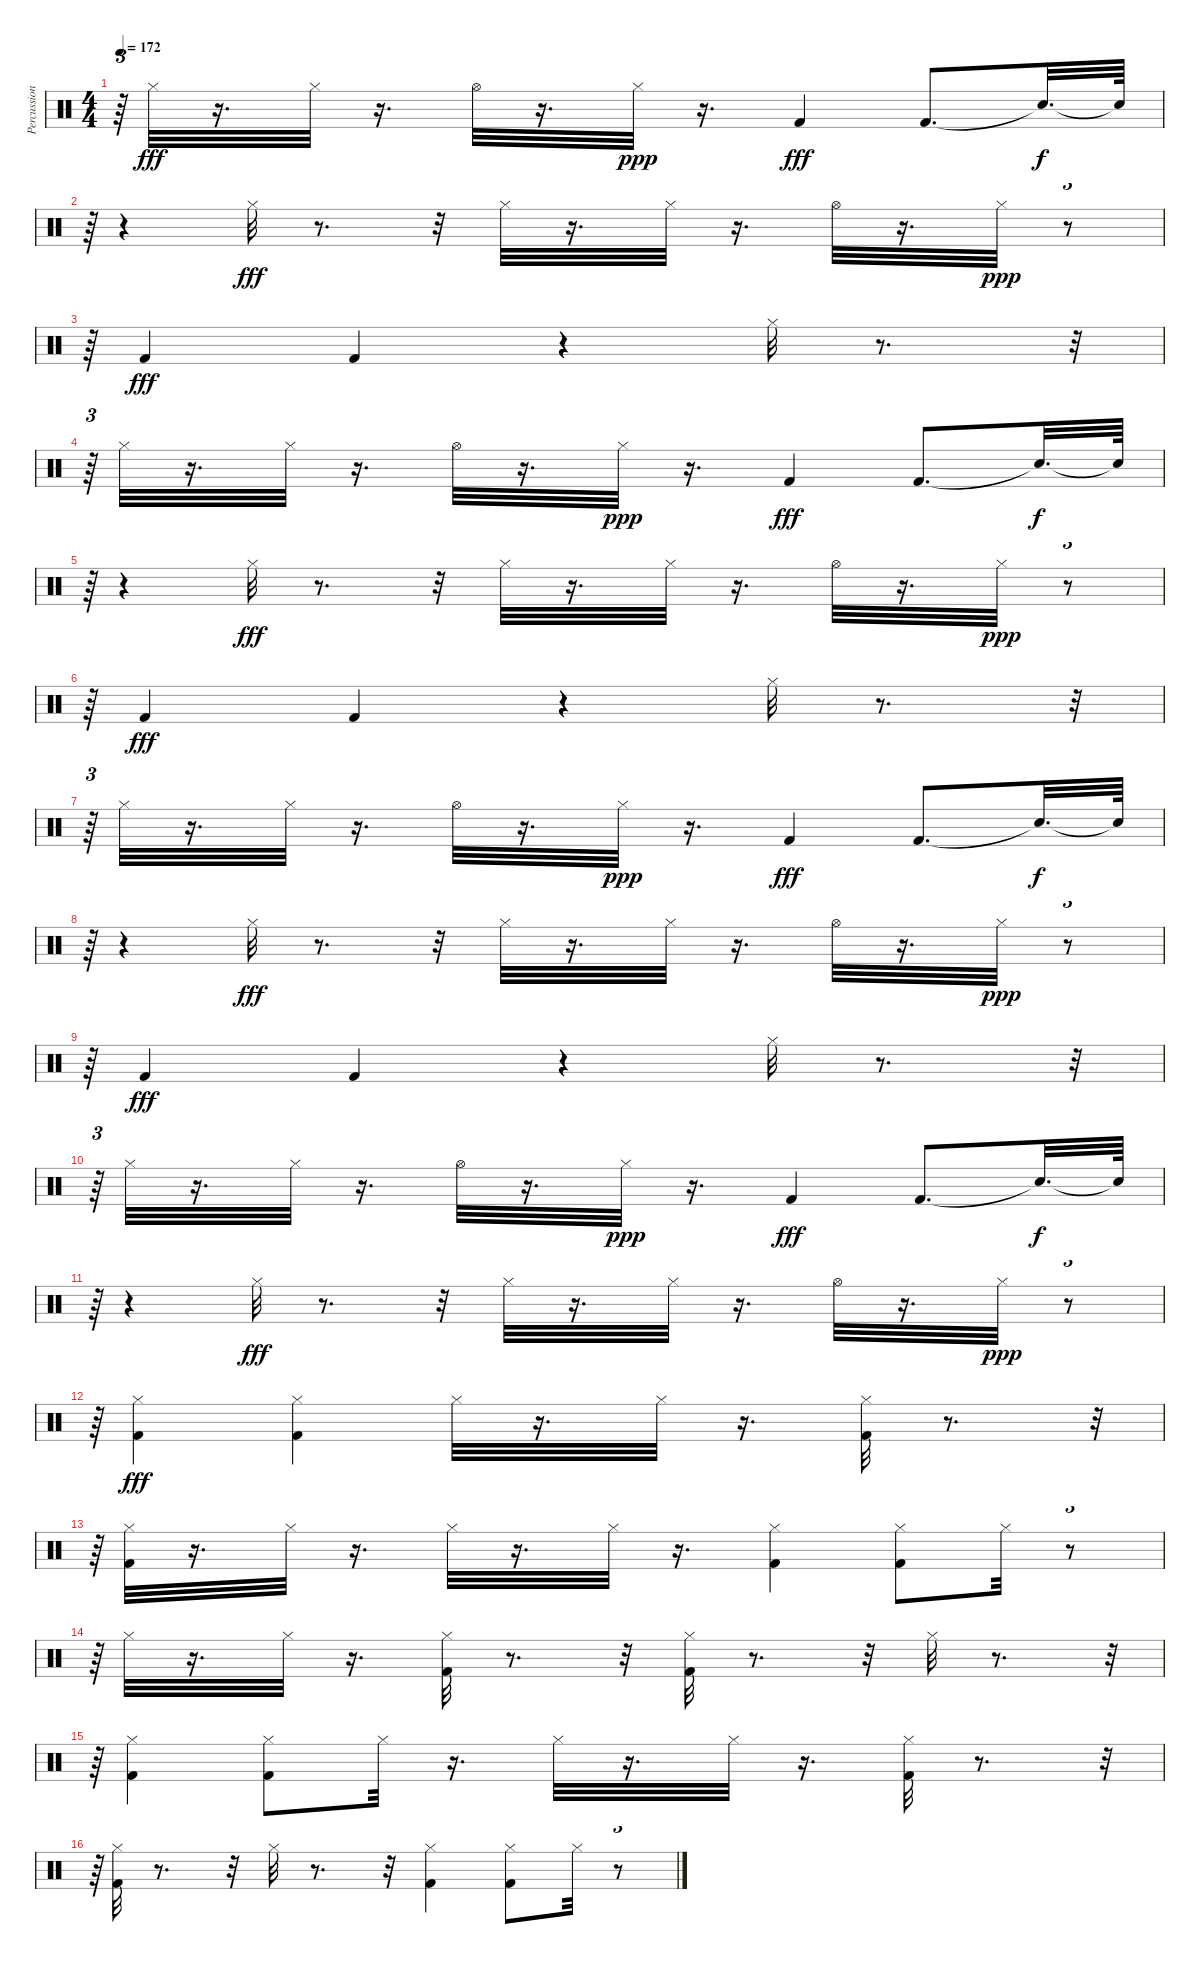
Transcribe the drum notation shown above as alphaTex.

\track ("Percussioni" "Percussion") {instrument percussion}
\staff {score}
\articulation defaults
\ts (4 4)
\tempo 172
\clef neutral
\ks c
r.64{tu (3 2) dy fff} "Hi-Hat (closed)".32 r.16{d} "Hi-Hat (closed)".32 r.16{d} "Hi-Hat (open)".32 r.16{d} "Hi-Hat (closed)".32{dy ppp} r.16{d} "Kick (hit) 2".4{dy fff} "Kick (hit) 2".8{d} "Snare (hit)"{t}.32{d dy f} "Snare (hit)"{t}.64 |
r.64{tu (3 2)} r.4 "Hi-Hat (closed)".32{dy fff} r.8{d} r.32 "Hi-Hat (closed)".32 r.16{d} "Hi-Hat (closed)".32 r.16{d} "Hi-Hat (open)".32 r.16{d} "Hi-Hat (closed)".32{dy ppp} r.8{tu (3 2)} |
r.64{tu (3 2)} "Kick (hit) 2".4{dy fff} "Kick (hit) 2".4 r.4 "Hi-Hat (closed)".32 r.8{d} r.32{tu (3 2)} |
r.64{tu (3 2)} "Hi-Hat (closed)".32 r.16{d} "Hi-Hat (closed)".32 r.16{d} "Hi-Hat (open)".32 r.16{d} "Hi-Hat (closed)".32{dy ppp} r.16{d} "Kick (hit) 2".4{dy fff} "Kick (hit) 2".8{d} "Snare (hit)"{t}.32{d dy f} "Snare (hit)"{t}.64 |
r.64{tu (3 2)} r.4 "Hi-Hat (closed)".32{dy fff} r.8{d} r.32 "Hi-Hat (closed)".32 r.16{d} "Hi-Hat (closed)".32 r.16{d} "Hi-Hat (open)".32 r.16{d} "Hi-Hat (closed)".32{dy ppp} r.8{tu (3 2)} |
r.64{tu (3 2)} "Kick (hit) 2".4{dy fff} "Kick (hit) 2".4 r.4 "Hi-Hat (closed)".32 r.8{d} r.32{tu (3 2)} |
r.64{tu (3 2)} "Hi-Hat (closed)".32 r.16{d} "Hi-Hat (closed)".32 r.16{d} "Hi-Hat (open)".32 r.16{d} "Hi-Hat (closed)".32{dy ppp} r.16{d} "Kick (hit) 2".4{dy fff} "Kick (hit) 2".8{d} "Snare (hit)"{t}.32{d dy f} "Snare (hit)"{t}.64 |
r.64{tu (3 2)} r.4 "Hi-Hat (closed)".32{dy fff} r.8{d} r.32 "Hi-Hat (closed)".32 r.16{d} "Hi-Hat (closed)".32 r.16{d} "Hi-Hat (open)".32 r.16{d} "Hi-Hat (closed)".32{dy ppp} r.8{tu (3 2)} |
r.64{tu (3 2)} "Kick (hit) 2".4{dy fff} "Kick (hit) 2".4 r.4 "Hi-Hat (closed)".32 r.8{d} r.32{tu (3 2)} |
r.64{tu (3 2)} "Hi-Hat (closed)".32 r.16{d} "Hi-Hat (closed)".32 r.16{d} "Hi-Hat (open)".32 r.16{d} "Hi-Hat (closed)".32{dy ppp} r.16{d} "Kick (hit) 2".4{dy fff} "Kick (hit) 2".8{d} "Snare (hit)"{t}.32{d dy f} "Snare (hit)"{t}.64 |
r.64{tu (3 2)} r.4 "Hi-Hat (closed)".32{dy fff} r.8{d} r.32 "Hi-Hat (closed)".32 r.16{d} "Hi-Hat (closed)".32 r.16{d} "Hi-Hat (open)".32 r.16{d} "Hi-Hat (closed)".32{dy ppp} r.8{tu (3 2)} |
r.64{tu (3 2)} ("Hi-Hat (closed)" "Kick (hit) 2").4{dy fff} ("Hi-Hat (closed)" "Kick (hit) 2").4 "Hi-Hat (closed)".32 r.16{d} "Hi-Hat (closed)".32 r.16{d} ("Hi-Hat (closed)" "Kick (hit) 2").32 r.8{d} r.32{tu (3 2)} |
r.64{tu (3 2)} ("Hi-Hat (closed)" "Kick (hit) 2").32 r.16{d} "Hi-Hat (closed)".32 r.16{d} "Hi-Hat (closed)".32 r.16{d} "Hi-Hat (closed)".32 r.16{d} ("Hi-Hat (closed)" "Kick (hit) 2").4 ("Hi-Hat (closed)" "Kick (hit) 2").8 "Hi-Hat (closed)".32 r.8{tu (3 2)} |
r.64{tu (3 2)} "Hi-Hat (closed)".32 r.16{d} "Hi-Hat (closed)".32 r.16{d} ("Hi-Hat (closed)" "Kick (hit) 2").32 r.8{d} r.32 ("Hi-Hat (closed)" "Kick (hit) 2").32 r.8{d} r.32 "Hi-Hat (closed)".32 r.8{d} r.32{tu (3 2)} |
r.64{tu (3 2)} ("Hi-Hat (closed)" "Kick (hit) 2").4 ("Hi-Hat (closed)" "Kick (hit) 2").8 "Hi-Hat (closed)".32 r.16{d} "Hi-Hat (closed)".32 r.16{d} "Hi-Hat (closed)".32 r.16{d} ("Hi-Hat (closed)" "Kick (hit) 2").32 r.8{d} r.32{tu (3 2)} |
r.64{tu (3 2)} ("Hi-Hat (closed)" "Kick (hit) 2").32 r.8{d} r.32 "Hi-Hat (closed)".32 r.8{d} r.32 ("Hi-Hat (closed)" "Kick (hit) 2").4 ("Hi-Hat (closed)" "Kick (hit) 2").8 "Hi-Hat (closed)".32 r.8{tu (3 2)}
